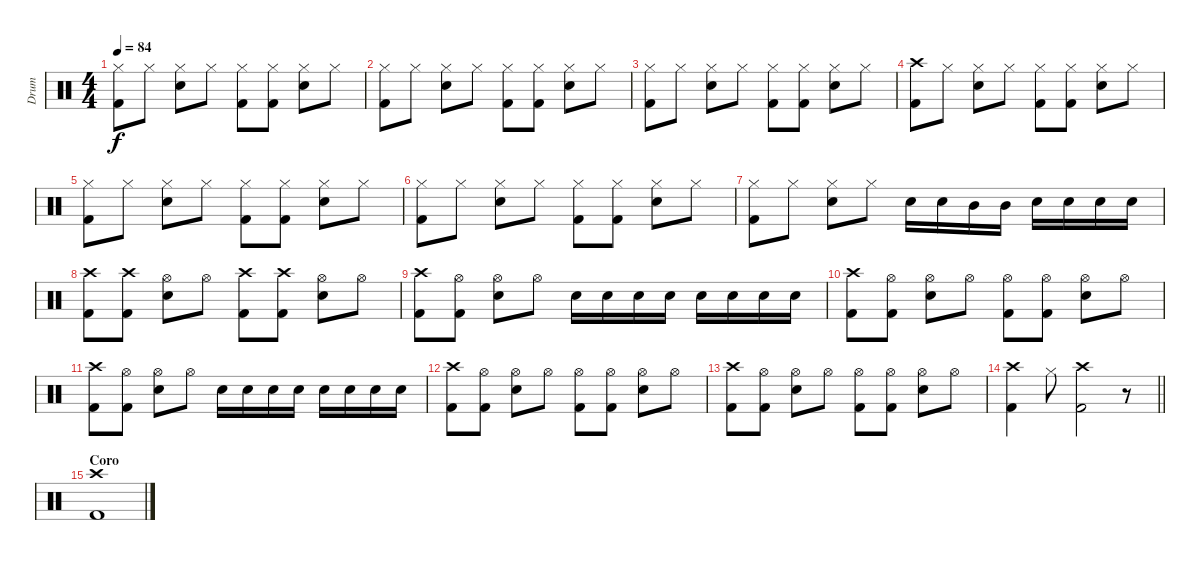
\track ("Drum" "Drum") {instrument percussion}
\staff {score}
\articulation defaults
\ts (4 4)
\tempo 84
\clef neutral
\ks c
("Hi-Hat (closed)" "Kick (hit) 2").8{dy f} "Hi-Hat (closed)".8 ("Hi-Hat (closed)" "Electric Snare (hit)").8 "Hi-Hat (closed)".8 ("Hi-Hat (closed)" "Kick (hit) 2").8 ("Hi-Hat (closed)" "Kick (hit) 2").8 ("Hi-Hat (closed)" "Electric Snare (hit)").8 "Hi-Hat (closed)".8 |
("Hi-Hat (closed)" "Kick (hit) 2").8 "Hi-Hat (closed)".8 ("Hi-Hat (closed)" "Electric Snare (hit)").8 "Hi-Hat (closed)".8 ("Hi-Hat (closed)" "Kick (hit) 2").8 ("Hi-Hat (closed)" "Kick (hit) 2").8 ("Hi-Hat (closed)" "Electric Snare (hit)").8 "Hi-Hat (closed)".8 |
("Hi-Hat (closed)" "Kick (hit) 2").8 "Hi-Hat (closed)".8 ("Hi-Hat (closed)" "Electric Snare (hit)").8 "Hi-Hat (closed)".8 ("Hi-Hat (closed)" "Kick (hit) 2").8 ("Hi-Hat (closed)" "Kick (hit) 2").8 ("Hi-Hat (closed)" "Electric Snare (hit)").8 "Hi-Hat (closed)".8 |
("Crash high (hit)" "Kick (hit) 2").8 "Hi-Hat (closed)".8 ("Hi-Hat (closed)" "Electric Snare (hit)").8 "Hi-Hat (closed)".8 ("Hi-Hat (closed)" "Kick (hit) 2").8 ("Hi-Hat (closed)" "Kick (hit) 2").8 ("Hi-Hat (closed)" "Electric Snare (hit)").8 "Hi-Hat (closed)".8 |
("Hi-Hat (closed)" "Kick (hit) 2").8 "Hi-Hat (closed)".8 ("Hi-Hat (closed)" "Electric Snare (hit)").8 "Hi-Hat (closed)".8 ("Hi-Hat (closed)" "Kick (hit) 2").8 ("Hi-Hat (closed)" "Kick (hit) 2").8 ("Hi-Hat (closed)" "Electric Snare (hit)").8 "Hi-Hat (closed)".8 |
("Hi-Hat (closed)" "Kick (hit) 2").8 "Hi-Hat (closed)".8 ("Hi-Hat (closed)" "Electric Snare (hit)").8 "Hi-Hat (closed)".8 ("Hi-Hat (closed)" "Kick (hit) 2").8 ("Hi-Hat (closed)" "Kick (hit) 2").8 ("Hi-Hat (closed)" "Electric Snare (hit)").8 "Hi-Hat (closed)".8 |
("Hi-Hat (closed)" "Kick (hit) 2").8 "Hi-Hat (closed)".8 ("Hi-Hat (closed)" "Electric Snare (hit)").8 "Hi-Hat (closed)".8 "Electric Snare (hit)".16 "Electric Snare (hit)".16 "Mid Tom (hit)".16 "Mid Tom (hit)".16 "Electric Snare (hit)".16 "Electric Snare (hit)".16 "Electric Snare (hit)".16 "Electric Snare (hit)".16 |
("Crash high (hit)" "Kick (hit) 2").8 ("Crash high (hit)" "Kick (hit) 2").8 ("Hi-Hat (open)" "Electric Snare (hit)").8 "Hi-Hat (open)".8 ("Crash high (hit)" "Kick (hit) 2").8 ("Crash high (hit)" "Kick (hit) 2").8 ("Hi-Hat (open)" "Electric Snare (hit)").8 "Hi-Hat (open)".8 |
("Crash high (hit)" "Kick (hit) 2").8 ("Hi-Hat (open)" "Kick (hit) 2").8 ("Hi-Hat (open)" "Electric Snare (hit)").8 "Hi-Hat (open)".8 "Electric Snare (hit)".16 "Electric Snare (hit)".16 "Electric Snare (hit)".16 "Electric Snare (hit)".16 "Electric Snare (hit)".16 "Electric Snare (hit)".16 "Electric Snare (hit)".16 "Electric Snare (hit)".16 |
("Crash high (hit)" "Kick (hit) 2").8 ("Hi-Hat (open)" "Kick (hit) 2").8 ("Hi-Hat (open)" "Electric Snare (hit)").8 "Hi-Hat (open)".8 ("Hi-Hat (open)" "Kick (hit) 2").8 ("Hi-Hat (open)" "Kick (hit) 2").8 ("Hi-Hat (open)" "Electric Snare (hit)").8 "Hi-Hat (open)".8 |
("Crash high (hit)" "Kick (hit) 2").8 ("Hi-Hat (open)" "Kick (hit) 2").8 ("Hi-Hat (open)" "Electric Snare (hit)").8 "Hi-Hat (open)".8 "Electric Snare (hit)".16 "Electric Snare (hit)".16 "Electric Snare (hit)".16 "Electric Snare (hit)".16 "Electric Snare (hit)".16 "Electric Snare (hit)".16 "Electric Snare (hit)".16 "Electric Snare (hit)".16 |
("Crash high (hit)" "Kick (hit) 2").8 ("Hi-Hat (open)" "Kick (hit) 2").8 ("Hi-Hat (open)" "Electric Snare (hit)").8 "Hi-Hat (open)".8 ("Hi-Hat (open)" "Kick (hit) 2").8 ("Hi-Hat (open)" "Kick (hit) 2").8 ("Hi-Hat (open)" "Electric Snare (hit)").8 "Hi-Hat (open)".8 |
("Crash high (hit)" "Kick (hit) 2").8 ("Hi-Hat (open)" "Kick (hit) 2").8 ("Hi-Hat (open)" "Electric Snare (hit)").8 "Hi-Hat (open)".8 ("Hi-Hat (open)" "Kick (hit) 2").8 ("Hi-Hat (open)" "Kick (hit) 2").8 ("Hi-Hat (open)" "Electric Snare (hit)").8 "Hi-Hat (open)".8 |
\barLineRight lightlight
("Crash high (hit)" "Kick (hit) 2").4 "Hi-Hat (closed)".8 ("Crash high (hit)" "Kick (hit) 2").2 r.8 |
\section ("" "Coro")
("Crash high (hit)" "Kick (hit) 2").1
